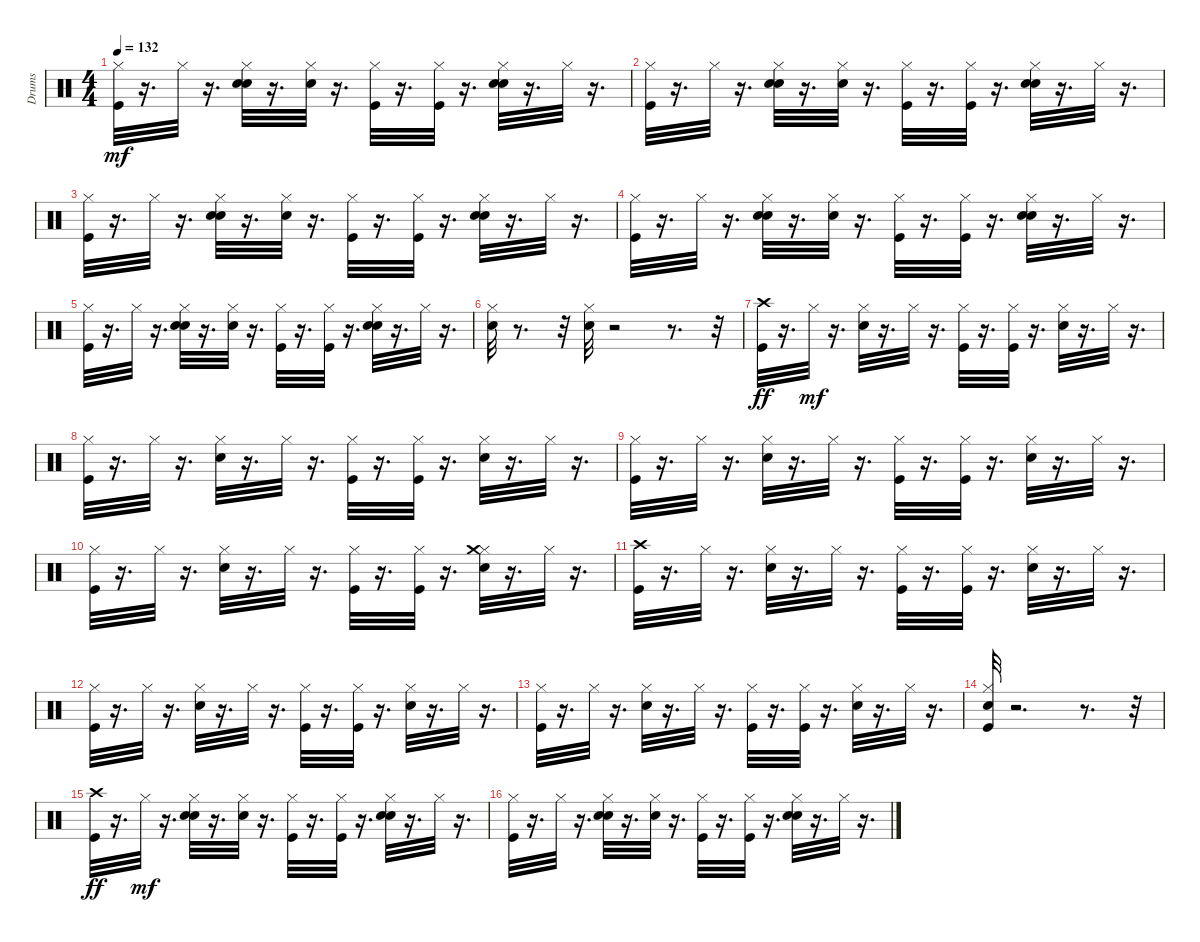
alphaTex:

\track ("Drums" "Drums") {instrument percussion}
\staff {score}
\articulation defaults
\ts (4 4)
\tempo 132
\clef neutral
\ks c
("Kick (hit)" "Hi-Hat (closed)").32{dy mf} r.16{d} "Hi-Hat (closed)".32 r.16{d} ("Hand Clap (hit)" "Electric Snare (hit)" "Hi-Hat (closed)").32 r.16{d} ("Hand Clap (hit)" "Hi-Hat (closed)").32 r.16{d} ("Kick (hit)" "Hi-Hat (closed)").32 r.16{d} ("Kick (hit)" "Hi-Hat (closed)").32 r.16{d} ("Hand Clap (hit)" "Electric Snare (hit)" "Hi-Hat (closed)").32 r.16{d} "Hi-Hat (closed)".32 r.16{d} |
("Kick (hit)" "Hi-Hat (closed)").32 r.16{d} "Hi-Hat (closed)".32 r.16{d} ("Hand Clap (hit)" "Electric Snare (hit)" "Hi-Hat (closed)").32 r.16{d} ("Hand Clap (hit)" "Hi-Hat (closed)").32 r.16{d} ("Kick (hit)" "Hi-Hat (closed)").32 r.16{d} ("Kick (hit)" "Hi-Hat (closed)").32 r.16{d} ("Hand Clap (hit)" "Electric Snare (hit)" "Hi-Hat (closed)").32 r.16{d} "Hi-Hat (closed)".32 r.16{d} |
("Kick (hit)" "Hi-Hat (closed)").32 r.16{d} "Hi-Hat (closed)".32 r.16{d} ("Hand Clap (hit)" "Electric Snare (hit)" "Hi-Hat (closed)").32 r.16{d} ("Hand Clap (hit)" "Hi-Hat (closed)").32 r.16{d} ("Kick (hit)" "Hi-Hat (closed)").32 r.16{d} ("Kick (hit)" "Hi-Hat (closed)").32 r.16{d} ("Hand Clap (hit)" "Electric Snare (hit)" "Hi-Hat (closed)").32 r.16{d} "Hi-Hat (closed)".32 r.16{d} |
("Kick (hit)" "Hi-Hat (closed)").32 r.16{d} "Hi-Hat (closed)".32 r.16{d} ("Hand Clap (hit)" "Electric Snare (hit)" "Hi-Hat (closed)").32 r.16{d} ("Hand Clap (hit)" "Hi-Hat (closed)").32 r.16{d} ("Kick (hit)" "Hi-Hat (closed)").32 r.16{d} ("Kick (hit)" "Hi-Hat (closed)").32 r.16{d} ("Hand Clap (hit)" "Electric Snare (hit)" "Hi-Hat (closed)").32 r.16{d} "Hi-Hat (closed)".32 r.16{d} |
("Kick (hit)" "Hi-Hat (closed)").32 r.16{d} "Hi-Hat (closed)".32 r.16{d} ("Hand Clap (hit)" "Electric Snare (hit)" "Hi-Hat (closed)").32 r.16{d} ("Hand Clap (hit)" "Hi-Hat (closed)").32 r.16{d} ("Kick (hit)" "Hi-Hat (closed)").32 r.16{d} ("Kick (hit)" "Hi-Hat (closed)").32 r.16{d} ("Hand Clap (hit)" "Electric Snare (hit)" "Hi-Hat (closed)").32 r.16{d} "Hi-Hat (closed)".32 r.16{d} |
("Electric Snare (hit)" "Hi-Hat (closed)").32 r.8{d} r.32 ("Electric Snare (hit)" "Hi-Hat (closed)").32 r.2 r.8{d} r.32 |
("Kick (hit)" "Crash high (hit)").32{dy ff} r.16{d} "Hi-Hat (closed)".32{dy mf} r.16{d} ("Electric Snare (hit)" "Hi-Hat (closed)").32 r.16{d} "Hi-Hat (closed)".32 r.16{d} ("Kick (hit)" "Hi-Hat (closed)").32 r.16{d} ("Kick (hit)" "Hi-Hat (closed)").32 r.16{d} ("Electric Snare (hit)" "Hi-Hat (closed)").32 r.16{d} "Hi-Hat (closed)".32 r.16{d} |
("Kick (hit)" "Hi-Hat (closed)").32 r.16{d} "Hi-Hat (closed)".32 r.16{d} ("Electric Snare (hit)" "Hi-Hat (closed)").32 r.16{d} "Hi-Hat (closed)".32 r.16{d} ("Kick (hit)" "Hi-Hat (closed)").32 r.16{d} ("Kick (hit)" "Hi-Hat (closed)").32 r.16{d} ("Electric Snare (hit)" "Hi-Hat (closed)").32 r.16{d} "Hi-Hat (closed)".32 r.16{d} |
("Kick (hit)" "Hi-Hat (closed)").32 r.16{d} "Hi-Hat (closed)".32 r.16{d} ("Electric Snare (hit)" "Hi-Hat (closed)").32 r.16{d} "Hi-Hat (closed)".32 r.16{d} ("Kick (hit)" "Hi-Hat (closed)").32 r.16{d} ("Kick (hit)" "Hi-Hat (closed)").32 r.16{d} ("Electric Snare (hit)" "Hi-Hat (closed)").32 r.16{d} "Hi-Hat (closed)".32 r.16{d} |
("Kick (hit)" "Hi-Hat (closed)").32 r.16{d} "Hi-Hat (closed)".32 r.16{d} ("Electric Snare (hit)" "Hi-Hat (closed)").32 r.16{d} "Hi-Hat (closed)".32 r.16{d} ("Kick (hit)" "Hi-Hat (closed)").32 r.16{d} ("Kick (hit)" "Hi-Hat (closed)").32 r.16{d} ("Electric Snare (hit)" "Hi-Hat (closed)" "Crash medium (hit)").32 r.16{d} "Hi-Hat (closed)".32 r.16{d} |
("Kick (hit)" "Crash high (hit)").32 r.16{d} "Hi-Hat (closed)".32 r.16{d} ("Electric Snare (hit)" "Hi-Hat (closed)").32 r.16{d} "Hi-Hat (closed)".32 r.16{d} ("Kick (hit)" "Hi-Hat (closed)").32 r.16{d} ("Kick (hit)" "Hi-Hat (closed)").32 r.16{d} ("Electric Snare (hit)" "Hi-Hat (closed)").32 r.16{d} "Hi-Hat (closed)".32 r.16{d} |
("Kick (hit)" "Hi-Hat (closed)").32 r.16{d} "Hi-Hat (closed)".32 r.16{d} ("Electric Snare (hit)" "Hi-Hat (closed)").32 r.16{d} "Hi-Hat (closed)".32 r.16{d} ("Kick (hit)" "Hi-Hat (closed)").32 r.16{d} ("Kick (hit)" "Hi-Hat (closed)").32 r.16{d} ("Electric Snare (hit)" "Hi-Hat (closed)").32 r.16{d} "Hi-Hat (closed)".32 r.16{d} |
("Kick (hit)" "Hi-Hat (closed)").32 r.16{d} "Hi-Hat (closed)".32 r.16{d} ("Electric Snare (hit)" "Hi-Hat (closed)").32 r.16{d} "Hi-Hat (closed)".32 r.16{d} ("Kick (hit)" "Hi-Hat (closed)").32 r.16{d} ("Kick (hit)" "Hi-Hat (closed)").32 r.16{d} ("Electric Snare (hit)" "Hi-Hat (closed)").32 r.16{d} "Hi-Hat (closed)".32 r.16{d} |
("Kick (hit)" "Electric Snare (hit)" "Hi-Hat (closed)").32 r.2{d} r.8{d} r.32 |
("Kick (hit)" "Crash high (hit)").32{dy ff} r.16{d} "Hi-Hat (closed)".32{dy mf} r.16{d} ("Hand Clap (hit)" "Electric Snare (hit)" "Hi-Hat (closed)").32 r.16{d} ("Hand Clap (hit)" "Hi-Hat (closed)").32 r.16{d} ("Kick (hit)" "Hi-Hat (closed)").32 r.16{d} ("Kick (hit)" "Hi-Hat (closed)").32 r.16{d} ("Hand Clap (hit)" "Electric Snare (hit)" "Hi-Hat (closed)").32 r.16{d} "Hi-Hat (closed)".32 r.16{d} |
("Kick (hit)" "Hi-Hat (closed)").32 r.16{d} "Hi-Hat (closed)".32 r.16{d} ("Hand Clap (hit)" "Electric Snare (hit)" "Hi-Hat (closed)").32 r.16{d} ("Hand Clap (hit)" "Hi-Hat (closed)").32 r.16{d} ("Kick (hit)" "Hi-Hat (closed)").32 r.16{d} ("Kick (hit)" "Hi-Hat (closed)").32 r.16{d} ("Hand Clap (hit)" "Electric Snare (hit)" "Hi-Hat (closed)").32 r.16{d} "Hi-Hat (closed)".32 r.16{d}
